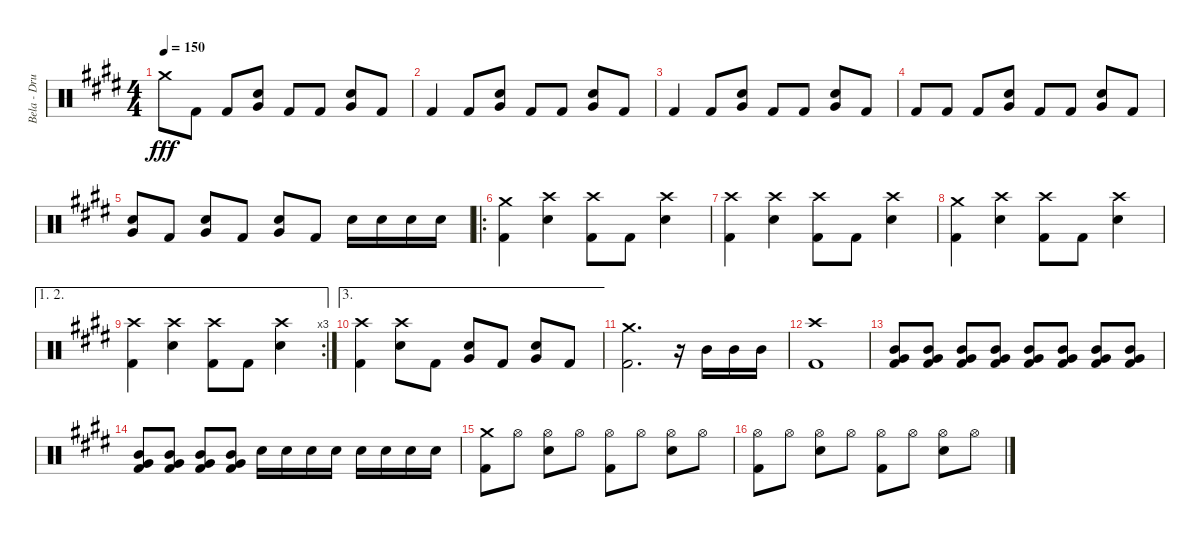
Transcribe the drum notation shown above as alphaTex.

\track ("Bela - Drums" "Bela - Dru") {instrument percussion}
\staff {score}
\articulation defaults
\ts (4 4)
\tempo 150
\clef neutral
\ks e "Crash medium (hit)".8{dy fff} "Kick (hit) 2".8 "Kick (hit) 2".8
("Electric Snare (hit)" "Very Low Tom (hit)").8 "Kick (hit) 2".8 "Kick (hit) 2".8 ("Electric Snare (hit)" "Very Low Tom (hit)").8 "Kick (hit) 2".8 |
"Kick (hit) 2".4 "Kick (hit) 2".8 ("Electric Snare (hit)" "Very Low Tom (hit)").8 "Kick (hit) 2".8 "Kick (hit) 2".8 ("Electric Snare (hit)" "Very Low Tom (hit)").8 "Kick (hit) 2".8 |
"Kick (hit) 2".4 "Kick (hit) 2".8 ("Electric Snare (hit)" "Very Low Tom (hit)").8 "Kick (hit) 2".8 "Kick (hit) 2".8 ("Electric Snare (hit)" "Very Low Tom (hit)").8 "Kick (hit) 2".8 |
"Kick (hit) 2".8 "Kick (hit) 2".8 "Kick (hit) 2".8 ("Electric Snare (hit)" "Very Low Tom (hit)").8 "Kick (hit) 2".8 "Kick (hit) 2".8 ("Electric Snare (hit)" "Very Low Tom (hit)").8 "Kick (hit) 2".8 |
("Electric Snare (hit)" "Very Low Tom (hit)").8 "Kick (hit) 2".8 ("Electric Snare (hit)" "Very Low Tom (hit)").8 "Kick (hit) 2".8 ("Electric Snare (hit)" "Very Low Tom (hit)").8 "Kick (hit) 2".8 "Electric Snare (hit)".16 "Electric Snare (hit)".16 "Electric Snare (hit)".16 "Electric Snare (hit)".16 |
\ro
("Crash medium (hit)" "Kick (hit) 2").4 ("Crash high (hit)" "Electric Snare (hit)").4 ("Crash high (hit)" "Kick (hit) 2").8 "Kick (hit) 2".8 ("Crash high (hit)" "Electric Snare (hit)").4 |
("Crash high (hit)" "Kick (hit) 2").4 ("Crash high (hit)" "Electric Snare (hit)").4 ("Crash high (hit)" "Kick (hit) 2").8 "Kick (hit) 2".8 ("Crash high (hit)" "Electric Snare (hit)").4 |
("Crash medium (hit)" "Kick (hit) 2").4 ("Crash high (hit)" "Electric Snare (hit)").4 ("Crash high (hit)" "Kick (hit) 2").8 "Kick (hit) 2".8 ("Crash high (hit)" "Electric Snare (hit)").4 |
\ae (1 2)
\rc 3
("Crash high (hit)" "Kick (hit) 2").4 ("Crash high (hit)" "Electric Snare (hit)").4 ("Crash high (hit)" "Kick (hit) 2").8 "Kick (hit) 2".8 ("Crash high (hit)" "Electric Snare (hit)").4 |
\ae 3
("Crash high (hit)" "Kick (hit) 2").4 ("Crash high (hit)" "Electric Snare (hit)").8 "Kick (hit) 2".8 ("Electric Snare (hit)" "Very Low Tom (hit)").8 "Kick (hit) 2".8 ("Electric Snare (hit)" "Very Low Tom (hit)").8 "Kick (hit) 2".8 |
("Crash medium (hit)" "Kick (hit) 2").2{d} r.16 "Mid Tom (hit)".16 "Mid Tom (hit)".16 "Mid Tom (hit)".16 |
("Crash high (hit)" "Kick (hit) 2").1 |
("Mid Tom (hit)" "Very Low Tom (hit)" "Kick (hit) 2").8 ("Mid Tom (hit)" "Very Low Tom (hit)" "Kick (hit) 2").8 ("Mid Tom (hit)" "Very Low Tom (hit)" "Kick (hit) 2").8 ("Mid Tom (hit)" "Very Low Tom (hit)" "Kick (hit) 2").8 ("Mid Tom (hit)" "Very Low Tom (hit)" "Kick (hit) 2").8 ("Mid Tom (hit)" "Very Low Tom (hit)" "Kick (hit) 2").8 ("Mid Tom (hit)" "Very Low Tom (hit)" "Kick (hit) 2").8 ("Mid Tom (hit)" "Very Low Tom (hit)" "Kick (hit) 2").8 |
("Mid Tom (hit)" "Very Low Tom (hit)" "Kick (hit) 2").8 ("Mid Tom (hit)" "Very Low Tom (hit)" "Kick (hit) 2").8 ("Mid Tom (hit)" "Very Low Tom (hit)" "Kick (hit) 2").8 ("Mid Tom (hit)" "Very Low Tom (hit)" "Kick (hit) 2").8 "Electric Snare (hit)".16 "Electric Snare (hit)".16 "Electric Snare (hit)".16 "Electric Snare (hit)".16 "Electric Snare (hit)".16 "Electric Snare (hit)".16 "Electric Snare (hit)".16 "Electric Snare (hit)".16 |
("Crash medium (hit)" "Kick (hit) 2").8 "Hi-Hat (open)".8 ("Hi-Hat (open)" "Electric Snare (hit)").8 "Hi-Hat (open)".8 ("Hi-Hat (open)" "Kick (hit) 2").8 "Hi-Hat (open)".8 ("Hi-Hat (open)" "Electric Snare (hit)").8 "Hi-Hat (open)".8 |
("Hi-Hat (open)" "Kick (hit) 2").8 "Hi-Hat (open)".8 ("Hi-Hat (open)" "Electric Snare (hit)").8 "Hi-Hat (open)".8 ("Hi-Hat (open)" "Kick (hit) 2").8 "Hi-Hat (open)".8 ("Hi-Hat (open)" "Electric Snare (hit)").8 "Hi-Hat (open)".8
